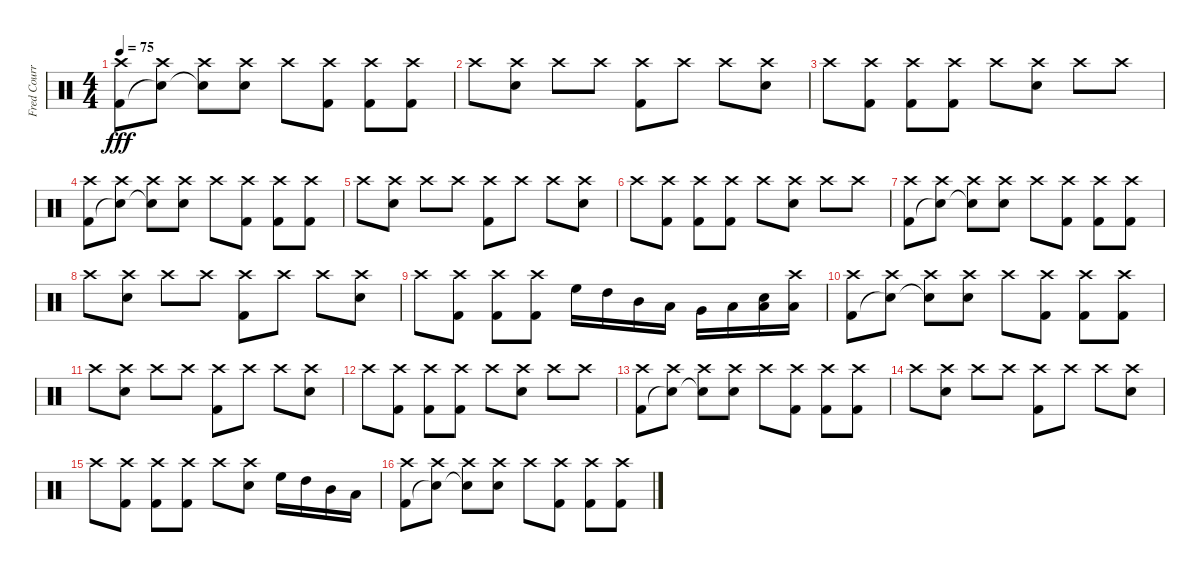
\track ("Fred Courry" "Fred Courr") {instrument percussion}
\staff {score}
\articulation defaults
\ts (4 4)
\tempo 75
\clef neutral
\ks c
("Crash high (hit)" "Kick (hit) 2").8{dy fff} ("Crash high (hit)" "Snare (hit)"{t}).8 ("Crash high (hit)" "Snare (hit)"{t}).8 ("Crash high (hit)" "Snare (hit) 2").8 "Crash high (hit)".8 ("Crash high (hit)" "Kick (hit) 2").8 ("Crash high (hit)" "Kick (hit) 2").8 ("Crash high (hit)" "Kick (hit) 2").8 |
"Crash high (hit)".8 ("Crash high (hit)" "Snare (hit) 2").8 "Crash high (hit)".8 "Crash high (hit)".8 ("Crash high (hit)" "Kick (hit) 2").8 "Crash high (hit)".8 "Crash high (hit)".8 ("Crash high (hit)" "Snare (hit) 2").8 |
"Crash high (hit)".8 ("Crash high (hit)" "Kick (hit) 2").8 ("Crash high (hit)" "Kick (hit) 2").8 ("Crash high (hit)" "Kick (hit) 2").8 "Crash high (hit)".8 ("Crash high (hit)" "Snare (hit) 2").8 "Crash high (hit)".8 "Crash high (hit)".8 |
("Crash high (hit)" "Kick (hit) 2").8 ("Crash high (hit)" "Snare (hit)"{t}).8 ("Crash high (hit)" "Snare (hit)"{t}).8 ("Crash high (hit)" "Snare (hit) 2").8 "Crash high (hit)".8 ("Crash high (hit)" "Kick (hit) 2").8 ("Crash high (hit)" "Kick (hit) 2").8 ("Crash high (hit)" "Kick (hit) 2").8 |
"Crash high (hit)".8 ("Crash high (hit)" "Snare (hit) 2").8 "Crash high (hit)".8 "Crash high (hit)".8 ("Crash high (hit)" "Kick (hit) 2").8 "Crash high (hit)".8 "Crash high (hit)".8 ("Crash high (hit)" "Snare (hit) 2").8 |
"Crash high (hit)".8 ("Crash high (hit)" "Kick (hit) 2").8 ("Crash high (hit)" "Kick (hit) 2").8 ("Crash high (hit)" "Kick (hit) 2").8 "Crash high (hit)".8 ("Crash high (hit)" "Snare (hit) 2").8 "Crash high (hit)".8 "Crash high (hit)".8 |
("Crash high (hit)" "Kick (hit) 2").8 ("Crash high (hit)" "Snare (hit)"{t}).8 ("Crash high (hit)" "Snare (hit)"{t}).8 ("Crash high (hit)" "Snare (hit) 2").8 "Crash high (hit)".8 ("Crash high (hit)" "Kick (hit) 2").8 ("Crash high (hit)" "Kick (hit) 2").8 ("Crash high (hit)" "Kick (hit) 2").8 |
"Crash high (hit)".8 ("Crash high (hit)" "Snare (hit) 2").8 "Crash high (hit)".8 "Crash high (hit)".8 ("Crash high (hit)" "Kick (hit) 2").8 "Crash high (hit)".8 "Crash high (hit)".8 ("Crash high (hit)" "Snare (hit) 2").8 |
"Crash high (hit)".8 ("Crash high (hit)" "Kick (hit) 2").8 ("Crash high (hit)" "Kick (hit) 2").8 ("Crash high (hit)" "Kick (hit) 2").8 "High Floor Tom (hit)".16 "High Tom (hit)".16 "Mid Tom (hit)".16 "Low Tom (hit)".16 "Very Low Tom (hit)".16 "Low Floor Tom (hit)".16 ("Snare (hit) 2" "Low Floor Tom (hit)").16 ("Crash high (hit)" "Low Floor Tom (hit)").16 |
("Crash high (hit)" "Kick (hit) 2").8 ("Crash high (hit)" "Snare (hit)"{t}).8 ("Crash high (hit)" "Snare (hit)"{t}).8 ("Crash high (hit)" "Snare (hit) 2").8 "Crash high (hit)".8 ("Crash high (hit)" "Kick (hit) 2").8 ("Crash high (hit)" "Kick (hit) 2").8 ("Crash high (hit)" "Kick (hit) 2").8 |
"Crash high (hit)".8 ("Crash high (hit)" "Snare (hit) 2").8 "Crash high (hit)".8 "Crash high (hit)".8 ("Crash high (hit)" "Kick (hit) 2").8 "Crash high (hit)".8 "Crash high (hit)".8 ("Crash high (hit)" "Snare (hit) 2").8 |
"Crash high (hit)".8 ("Crash high (hit)" "Kick (hit) 2").8 ("Crash high (hit)" "Kick (hit) 2").8 ("Crash high (hit)" "Kick (hit) 2").8 "Crash high (hit)".8 ("Crash high (hit)" "Snare (hit) 2").8 "Crash high (hit)".8 "Crash high (hit)".8 |
("Crash high (hit)" "Kick (hit) 2").8 ("Crash high (hit)" "Snare (hit)"{t}).8 ("Crash high (hit)" "Snare (hit)"{t}).8 ("Crash high (hit)" "Snare (hit) 2").8 "Crash high (hit)".8 ("Crash high (hit)" "Kick (hit) 2").8 ("Crash high (hit)" "Kick (hit) 2").8 ("Crash high (hit)" "Kick (hit) 2").8 |
"Crash high (hit)".8 ("Crash high (hit)" "Snare (hit) 2").8 "Crash high (hit)".8 "Crash high (hit)".8 ("Crash high (hit)" "Kick (hit) 2").8 "Crash high (hit)".8 "Crash high (hit)".8 ("Crash high (hit)" "Snare (hit) 2").8 |
"Crash high (hit)".8 ("Crash high (hit)" "Kick (hit) 2").8 ("Crash high (hit)" "Kick (hit) 2").8 ("Crash high (hit)" "Kick (hit) 2").8 "Crash high (hit)".8 ("Crash high (hit)" "Snare (hit) 2").8 "High Floor Tom (hit)".16 "High Tom (hit)".16 "Mid Tom (hit)".16 "Low Tom (hit)".16 |
("Crash high (hit)" "Kick (hit) 2").8 ("Crash high (hit)" "Snare (hit)"{t}).8 ("Crash high (hit)" "Snare (hit)"{t}).8 ("Crash high (hit)" "Snare (hit) 2").8 "Crash high (hit)".8 ("Crash high (hit)" "Kick (hit) 2").8 ("Crash high (hit)" "Kick (hit) 2").8 ("Crash high (hit)" "Kick (hit) 2").8
